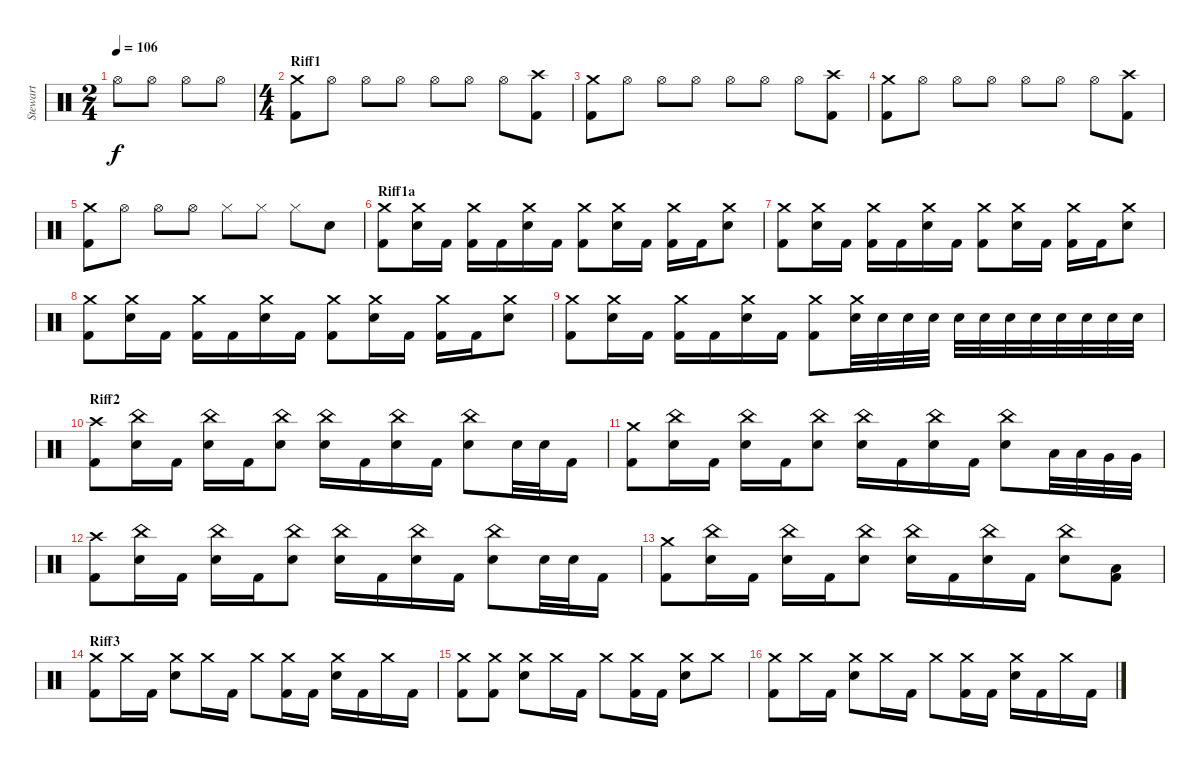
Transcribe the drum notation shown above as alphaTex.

\track ("Stewart" "Stewart") {instrument percussion}
\staff {score}
\articulation defaults
\ts (2 4)
\tempo 106
\clef neutral
\ks c "Hi-Hat (open)".8{dy f} "Hi-Hat (open)".8 "Hi-Hat (open)".8 "Hi-Hat (open)".8
|
\ts (4 4)
\section ("" "Riff1")
("Crash medium (hit)" "Kick (hit) 2").8 "Hi-Hat (open)".8 "Hi-Hat (open)".8 "Hi-Hat (open)".8 "Hi-Hat (open)".8 "Hi-Hat (open)".8 "Hi-Hat (open)".8 ("Crash high (hit)" "Kick (hit) 2").8 |
("Crash medium (hit)" "Kick (hit) 2").8 "Hi-Hat (open)".8 "Hi-Hat (open)".8 "Hi-Hat (open)".8 "Hi-Hat (open)".8 "Hi-Hat (open)".8 "Hi-Hat (open)".8 ("Crash high (hit)" "Kick (hit) 2").8 |
("Crash medium (hit)" "Kick (hit) 2").8 "Hi-Hat (open)".8 "Hi-Hat (open)".8 "Hi-Hat (open)".8 "Hi-Hat (open)".8 "Hi-Hat (open)".8 "Hi-Hat (open)".8 ("Crash high (hit)" "Kick (hit) 2").8 |
("Crash medium (hit)" "Kick (hit) 2").8 "Hi-Hat (open)".8 "Hi-Hat (open)".8 "Hi-Hat (open)".8 "Hi-Hat (closed)".8 "Hi-Hat (closed)".8 "Hi-Hat (closed)".8 "Electric Snare (hit)".8 |
\section ("" "Riff1a")
("Crash medium (hit)" "Kick (hit) 2").8 ("Crash medium (hit)" "Electric Snare (hit)").16 "Kick (hit) 2".16 ("Crash medium (hit)" "Kick (hit) 2").16 "Kick (hit) 2".16 ("Crash medium (hit)" "Electric Snare (hit)").16 "Kick (hit) 2".16 ("Crash medium (hit)" "Kick (hit) 2").8 ("Crash medium (hit)" "Electric Snare (hit)").16 "Kick (hit) 2".16 ("Crash medium (hit)" "Kick (hit) 2").16 "Kick (hit) 2".16 ("Crash medium (hit)" "Electric Snare (hit)").8 |
("Crash medium (hit)" "Kick (hit) 2").8 ("Crash medium (hit)" "Electric Snare (hit)").16 "Kick (hit) 2".16 ("Crash medium (hit)" "Kick (hit) 2").16 "Kick (hit) 2".16 ("Crash medium (hit)" "Electric Snare (hit)").16 "Kick (hit) 2".16 ("Crash medium (hit)" "Kick (hit) 2").8 ("Crash medium (hit)" "Electric Snare (hit)").16 "Kick (hit) 2".16 ("Crash medium (hit)" "Kick (hit) 2").16 "Kick (hit) 2".16 ("Crash medium (hit)" "Electric Snare (hit)").8 |
("Crash medium (hit)" "Kick (hit) 2").8 ("Crash medium (hit)" "Electric Snare (hit)").16 "Kick (hit) 2".16 ("Crash medium (hit)" "Kick (hit) 2").16 "Kick (hit) 2".16 ("Crash medium (hit)" "Electric Snare (hit)").16 "Kick (hit) 2".16 ("Crash medium (hit)" "Kick (hit) 2").8 ("Crash medium (hit)" "Electric Snare (hit)").16 "Kick (hit) 2".16 ("Crash medium (hit)" "Kick (hit) 2").16 "Kick (hit) 2".16 ("Crash medium (hit)" "Electric Snare (hit)").8 |
("Crash medium (hit)" "Kick (hit) 2").8 ("Crash medium (hit)" "Electric Snare (hit)").16 "Kick (hit) 2".16 ("Crash medium (hit)" "Kick (hit) 2").16 "Kick (hit) 2".16 ("Crash medium (hit)" "Electric Snare (hit)").16 "Kick (hit) 2".16 ("Crash medium (hit)" "Kick (hit) 2").8 ("Crash medium (hit)" "Electric Snare (hit)").32 "Electric Snare (hit)".32 "Electric Snare (hit)".32 "Electric Snare (hit)".32 "Electric Snare (hit)".32 "Electric Snare (hit)".32 "Electric Snare (hit)".32 "Electric Snare (hit)".32 "Electric Snare (hit)".32 "Electric Snare (hit)".32 "Electric Snare (hit)".32 "Electric Snare (hit)".32 |
\section ("" "Riff2")
("Crash high (hit)" "Kick (hit) 2").8 ("China (hit)" "Electric Snare (hit)").16 "Kick (hit) 2".16 ("China (hit)" "Electric Snare (hit)").16 "Kick (hit) 2".16 ("China (hit)" "Electric Snare (hit)").8 ("China (hit)" "Electric Snare (hit)").16 "Kick (hit) 2".16 ("China (hit)" "Electric Snare (hit)").16 "Kick (hit) 2".16 ("China (hit)" "Electric Snare (hit)").8 "Electric Snare (hit)".32 "Electric Snare (hit)".32 "Kick (hit) 2".16 |
("Crash medium (hit)" "Kick (hit) 2").8 ("China (hit)" "Electric Snare (hit)").16 "Kick (hit) 2".16 ("China (hit)" "Electric Snare (hit)").16 "Kick (hit) 2".16 ("China (hit)" "Electric Snare (hit)").8 ("China (hit)" "Electric Snare (hit)").16 "Kick (hit) 2".16 ("China (hit)" "Electric Snare (hit)").16 "Kick (hit) 2".16 ("China (hit)" "Electric Snare (hit)").8 "Low Tom (hit)".32 "Low Tom (hit)".32 "Very Low Tom (hit)".32 "Very Low Tom (hit)".32 |
("Crash high (hit)" "Kick (hit) 2").8 ("China (hit)" "Electric Snare (hit)").16 "Kick (hit) 2".16 ("China (hit)" "Electric Snare (hit)").16 "Kick (hit) 2".16 ("China (hit)" "Electric Snare (hit)").8 ("China (hit)" "Electric Snare (hit)").16 "Kick (hit) 2".16 ("China (hit)" "Electric Snare (hit)").16 "Kick (hit) 2".16 ("China (hit)" "Electric Snare (hit)").8 "Electric Snare (hit)".32 "Electric Snare (hit)".32 "Kick (hit) 2".16 |
("Crash medium (hit)" "Kick (hit) 2").8 ("China (hit)" "Electric Snare (hit)").16 "Kick (hit) 2".16 ("China (hit)" "Electric Snare (hit)").16 "Kick (hit) 2".16 ("China (hit)" "Electric Snare (hit)").8 ("China (hit)" "Electric Snare (hit)").16 "Kick (hit) 2".16 ("China (hit)" "Electric Snare (hit)").16 "Kick (hit) 2".16 ("China (hit)" "Electric Snare (hit)").8 ("Low Tom (hit)" "Kick (hit) 2").8 |
\section ("" "Riff3")
("Crash medium (hit)" "Kick (hit) 2").8 "Crash medium (hit)".16 "Kick (hit) 2".16 ("Crash medium (hit)" "Electric Snare (hit)").8 "Crash medium (hit)".16 "Kick (hit) 2".16 "Crash medium (hit)".8 ("Crash medium (hit)" "Kick (hit) 2").16 "Kick (hit) 2".16 ("Crash medium (hit)" "Electric Snare (hit)").16 "Kick (hit) 2".16 "Crash medium (hit)".16 "Kick (hit) 2".16 |
("Crash medium (hit)" "Kick (hit) 2").8 ("Crash medium (hit)" "Kick (hit) 2").8 ("Crash medium (hit)" "Electric Snare (hit)").8 "Crash medium (hit)".16 "Kick (hit) 2".16 "Crash medium (hit)".8 ("Crash medium (hit)" "Kick (hit) 2").16 "Kick (hit) 2".16 ("Crash medium (hit)" "Electric Snare (hit)").8 "Crash medium (hit)".8 |
("Crash medium (hit)" "Kick (hit) 2").8 "Crash medium (hit)".16 "Kick (hit) 2".16 ("Crash medium (hit)" "Electric Snare (hit)").8 "Crash medium (hit)".16 "Kick (hit) 2".16 "Crash medium (hit)".8 ("Crash medium (hit)" "Kick (hit) 2").16 "Kick (hit) 2".16 ("Crash medium (hit)" "Electric Snare (hit)").16 "Kick (hit) 2".16 "Crash medium (hit)".16 "Kick (hit) 2".16
